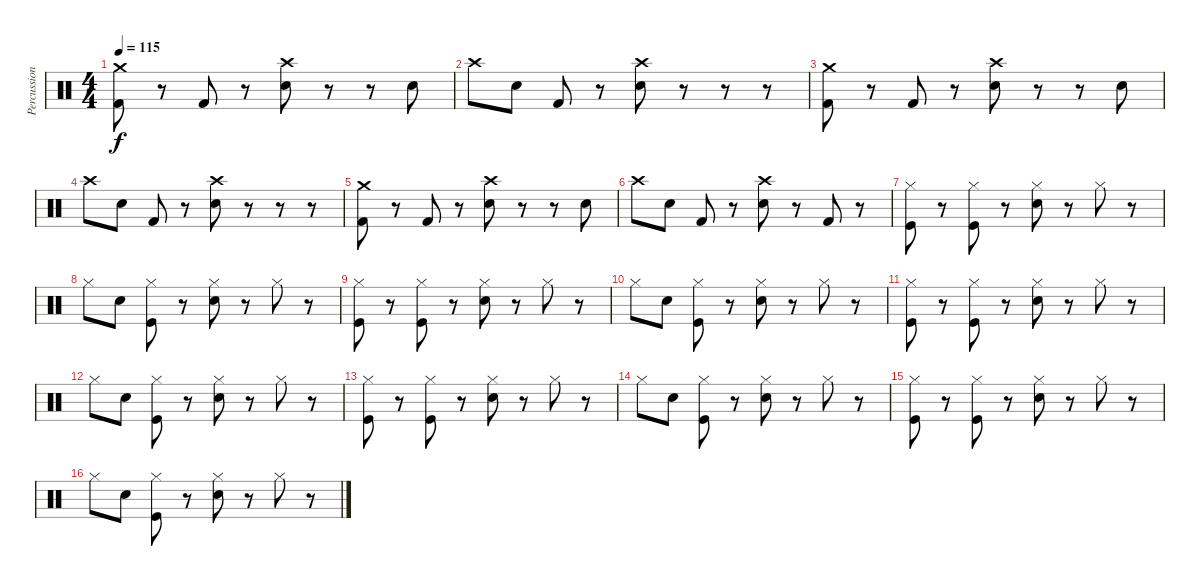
\track ("Percussion" "Percussion") {instrument percussion}
\staff {score}
\articulation defaults
\ts (4 4)
\tempo 115
\clef neutral
\ks c
("Kick (hit) 2" "Crash medium (hit)").8{dy f} r.8 "Kick (hit) 2".8 r.8 ("Electric Snare (hit)" "Crash high (hit)").8 r.8 r.8 "Electric Snare (hit)".8 |
"Crash high (hit)".8 "Electric Snare (hit)".8 "Kick (hit) 2".8 r.8 ("Electric Snare (hit)" "Crash high (hit)").8 r.8 r.8 r.8 |
("Kick (hit) 2" "Crash medium (hit)").8 r.8 "Kick (hit) 2".8 r.8 ("Electric Snare (hit)" "Crash high (hit)").8 r.8 r.8 "Electric Snare (hit)".8 |
"Crash high (hit)".8 "Electric Snare (hit)".8 "Kick (hit) 2".8 r.8 ("Electric Snare (hit)" "Crash high (hit)").8 r.8 r.8 r.8 |
("Kick (hit) 2" "Crash medium (hit)").8 r.8 "Kick (hit) 2".8 r.8 ("Electric Snare (hit)" "Crash high (hit)").8 r.8 r.8 "Electric Snare (hit)".8 |
"Crash high (hit)".8 "Electric Snare (hit)".8 "Kick (hit) 2".8 r.8 ("Electric Snare (hit)" "Crash high (hit)").8 r.8 "Kick (hit) 2".8 r.8 |
("Kick (hit)" "Hi-Hat (closed)").8 r.8 ("Kick (hit)" "Hi-Hat (closed)").8 r.8 ("Snare (hit) 2" "Hi-Hat (closed)").8 r.8 "Hi-Hat (closed)".8 r.8 |
"Hi-Hat (closed)".8 "Snare (hit) 2".8 ("Kick (hit)" "Hi-Hat (closed)").8 r.8 ("Snare (hit) 2" "Hi-Hat (closed)").8 r.8 "Hi-Hat (closed)".8 r.8 |
("Kick (hit)" "Hi-Hat (closed)").8 r.8 ("Kick (hit)" "Hi-Hat (closed)").8 r.8 ("Snare (hit) 2" "Hi-Hat (closed)").8 r.8 "Hi-Hat (closed)".8 r.8 |
"Hi-Hat (closed)".8 "Snare (hit) 2".8 ("Kick (hit)" "Hi-Hat (closed)").8 r.8 ("Snare (hit) 2" "Hi-Hat (closed)").8 r.8 "Hi-Hat (closed)".8 r.8 |
("Kick (hit)" "Hi-Hat (closed)").8 r.8 ("Kick (hit)" "Hi-Hat (closed)").8 r.8 ("Snare (hit) 2" "Hi-Hat (closed)").8 r.8 "Hi-Hat (closed)".8 r.8 |
"Hi-Hat (closed)".8 "Snare (hit) 2".8 ("Kick (hit)" "Hi-Hat (closed)").8 r.8 ("Snare (hit) 2" "Hi-Hat (closed)").8 r.8 "Hi-Hat (closed)".8 r.8 |
("Kick (hit)" "Hi-Hat (closed)").8 r.8 ("Kick (hit)" "Hi-Hat (closed)").8 r.8 ("Snare (hit) 2" "Hi-Hat (closed)").8 r.8 "Hi-Hat (closed)".8 r.8 |
"Hi-Hat (closed)".8 "Snare (hit) 2".8 ("Kick (hit)" "Hi-Hat (closed)").8 r.8 ("Snare (hit) 2" "Hi-Hat (closed)").8 r.8 "Hi-Hat (closed)".8 r.8 |
("Kick (hit)" "Hi-Hat (closed)").8 r.8 ("Kick (hit)" "Hi-Hat (closed)").8 r.8 ("Snare (hit) 2" "Hi-Hat (closed)").8 r.8 "Hi-Hat (closed)".8 r.8 |
"Hi-Hat (closed)".8 "Snare (hit) 2".8 ("Kick (hit)" "Hi-Hat (closed)").8 r.8 ("Snare (hit) 2" "Hi-Hat (closed)").8 r.8 "Hi-Hat (closed)".8 r.8
